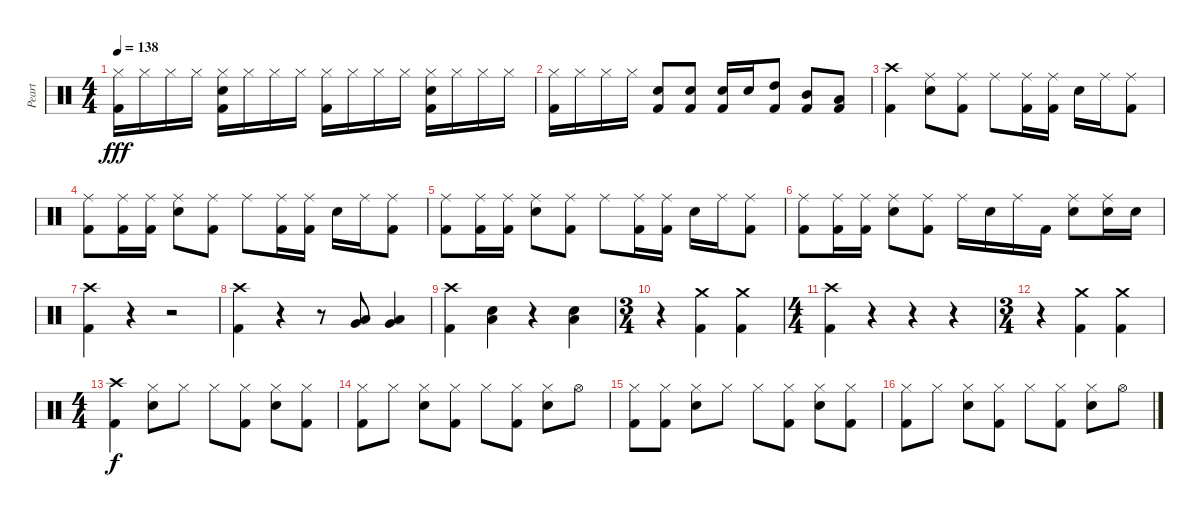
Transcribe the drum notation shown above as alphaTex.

\track ("Peart" "Peart") {instrument percussion}
\staff {score}
\articulation defaults
\ts (4 4)
\tempo 138
\clef neutral
\ks c
("Hi-Hat (closed)" "Kick (hit) 2").16{dy fff} "Hi-Hat (closed)".16 "Hi-Hat (closed)".16 "Hi-Hat (closed)".16 ("Hi-Hat (closed)" "Electric Snare (hit)" "Kick (hit) 2").16 "Hi-Hat (closed)".16 "Hi-Hat (closed)".16 "Hi-Hat (closed)".16 ("Hi-Hat (closed)" "Kick (hit) 2").16 "Hi-Hat (closed)".16 "Hi-Hat (closed)".16 "Hi-Hat (closed)".16 ("Hi-Hat (closed)" "Electric Snare (hit)" "Kick (hit) 2").16 "Hi-Hat (closed)".16 "Hi-Hat (closed)".16 "Hi-Hat (closed)".16 |
("Hi-Hat (closed)" "Kick (hit) 2").16 "Hi-Hat (closed)".16 "Hi-Hat (closed)".16 "Hi-Hat (closed)".16 ("Electric Snare (hit)" "Kick (hit) 2").8 ("Electric Snare (hit)" "Kick (hit) 2").8 ("Electric Snare (hit)" "Kick (hit) 2").16 "Electric Snare (hit)".16 ("High Tom (hit)" "Kick (hit) 2").8 ("Mid Tom (hit)" "Kick (hit) 2").8 ("Low Tom (hit)" "Kick (hit) 2").8 |
("Kick (hit) 2" "Crash high (hit)").4 ("Ride (middle)" "Electric Snare (hit)").8 ("Ride (middle)" "Kick (hit) 2").8 "Ride (middle)".8 ("Ride (middle)" "Kick (hit) 2").16 ("Ride (middle)" "Kick (hit) 2").16 "Electric Snare (hit)".16 "Ride (middle)".16 ("Ride (middle)" "Kick (hit) 2").8 |
("Ride (middle)" "Kick (hit) 2").8 ("Ride (middle)" "Kick (hit) 2").16 ("Ride (middle)" "Kick (hit) 2").16 ("Ride (middle)" "Electric Snare (hit)").8 ("Ride (middle)" "Kick (hit) 2").8 "Ride (middle)".8 ("Ride (middle)" "Kick (hit) 2").16 ("Ride (middle)" "Kick (hit) 2").16 "Electric Snare (hit)".16 "Ride (middle)".16 ("Ride (middle)" "Kick (hit) 2").8 |
("Ride (middle)" "Kick (hit) 2").8 ("Ride (middle)" "Kick (hit) 2").16 ("Ride (middle)" "Kick (hit) 2").16 ("Ride (middle)" "Electric Snare (hit)").8 ("Ride (middle)" "Kick (hit) 2").8 "Ride (middle)".8 ("Ride (middle)" "Kick (hit) 2").16 ("Ride (middle)" "Kick (hit) 2").16 "Electric Snare (hit)".16 "Ride (middle)".16 ("Ride (middle)" "Kick (hit) 2").8 |
("Ride (middle)" "Kick (hit) 2").8 ("Ride (middle)" "Kick (hit) 2").16 ("Ride (middle)" "Kick (hit) 2").16 ("Ride (middle)" "Electric Snare (hit)").8 ("Ride (middle)" "Kick (hit) 2").8 "Ride (middle)".16 "Electric Snare (hit)".16 "Ride (middle)".16 "Kick (hit) 2".16 ("Ride (middle)" "Electric Snare (hit)").8 ("Ride (middle)" "Electric Snare (hit)").16 "Electric Snare (hit)".16 |
("Kick (hit) 2" "Crash high (hit)").4 r.4 r.2 |
("Kick (hit) 2" "Crash high (hit)").4 r.4 r.8 ("Low Floor Tom (hit)" "Very Low Tom (hit)").8 ("Very Low Tom (hit)" "Low Floor Tom (hit)").4 |
("Crash high (hit)" "Kick (hit) 2").4 ("Electric Snare (hit)" "Low Floor Tom (hit)").4 r.4 ("Electric Snare (hit)" "Low Floor Tom (hit)").4 |
\ts (3 4)
r.4 ("Crash medium (hit)" "Kick (hit) 2").4 ("Crash medium (hit)" "Kick (hit) 2").4 |
\ts (4 4)
("Crash high (hit)" "Kick (hit) 2").4 r.4 r.4 r.4 |
\ts (3 4)
r.4 ("Crash medium (hit)" "Kick (hit) 2").4 ("Crash medium (hit)" "Kick (hit) 2").4 |
\ts (4 4)
("Crash high (hit)" "Kick (hit) 2").4{dy f} ("Hi-Hat (closed)" "Electric Snare (hit)").8 "Hi-Hat (closed)".8 "Hi-Hat (closed)".8 ("Hi-Hat (closed)" "Kick (hit) 2").8 ("Hi-Hat (closed)" "Electric Snare (hit)").8 ("Hi-Hat (closed)" "Kick (hit) 2").8 |
("Hi-Hat (closed)" "Kick (hit) 2").8 "Hi-Hat (closed)".8 ("Hi-Hat (closed)" "Electric Snare (hit)").8 ("Hi-Hat (closed)" "Kick (hit) 2").8 "Hi-Hat (closed)".8 ("Hi-Hat (closed)" "Kick (hit) 2").8 ("Hi-Hat (closed)" "Electric Snare (hit)").8 "Hi-Hat (open)".8 |
("Hi-Hat (closed)" "Kick (hit) 2").8 ("Hi-Hat (closed)" "Kick (hit) 2").8 ("Hi-Hat (closed)" "Electric Snare (hit)").8 "Hi-Hat (closed)".8 "Hi-Hat (closed)".8 ("Hi-Hat (closed)" "Kick (hit) 2").8 ("Hi-Hat (closed)" "Electric Snare (hit)").8 ("Hi-Hat (closed)" "Kick (hit) 2").8 |
("Hi-Hat (closed)" "Kick (hit) 2").8 "Hi-Hat (closed)".8 ("Hi-Hat (closed)" "Electric Snare (hit)").8 ("Hi-Hat (closed)" "Kick (hit) 2").8 "Hi-Hat (closed)".8 ("Hi-Hat (closed)" "Kick (hit) 2").8 ("Hi-Hat (closed)" "Electric Snare (hit)").8 "Hi-Hat (open)".8
